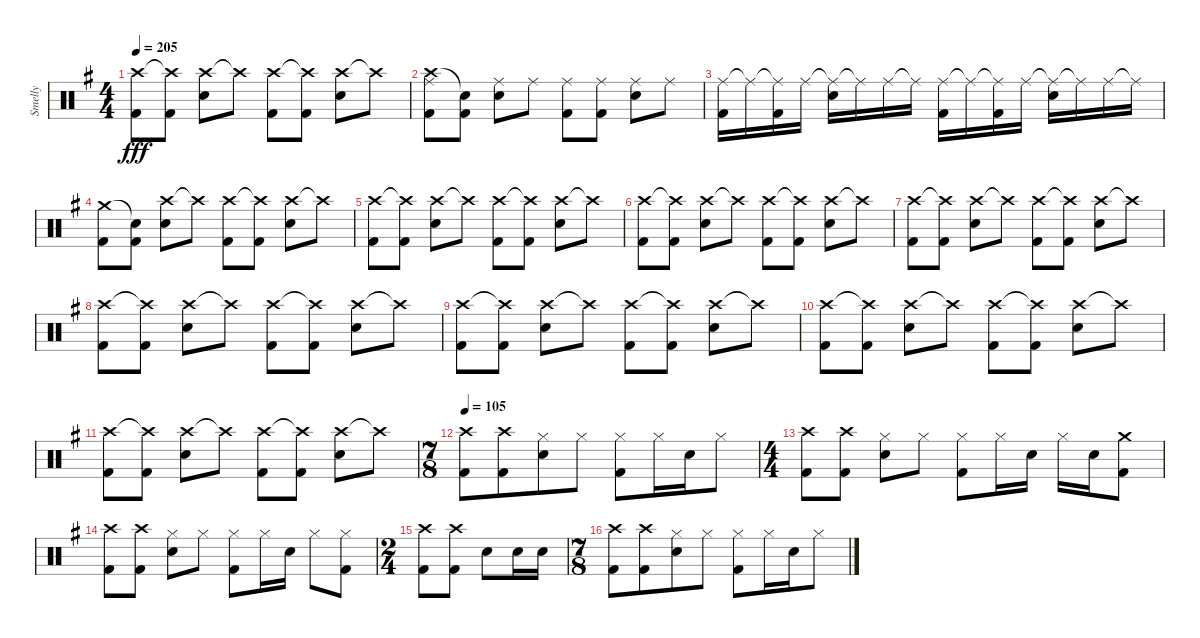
\track ("Smelly" "Smelly") {instrument percussion}
\staff {score}
\articulation defaults
\ts (4 4)
\tempo 205
\clef neutral
\ks eminor
("Crash high (hit)" "Kick (hit) 2").8{dy fff} ("Crash high (hit)"{t} "Kick (hit) 2").8 ("Crash high (hit)" "Electric Snare (hit)").8 "Crash high (hit)"{t}.8 ("Crash high (hit)" "Kick (hit) 2").8 ("Crash high (hit)"{t} "Kick (hit) 2").8 ("Crash high (hit)" "Electric Snare (hit)").8 "Crash high (hit)"{t}.8 |
("Crash high (hit)" "Ride (middle)" "Kick (hit) 2").8 ("Snare (hit)"{t} "Kick (hit) 2").8 ("Ride (middle)" "Electric Snare (hit)").8 "Ride (middle)".8 ("Ride (middle)" "Kick (hit) 2").8 ("Ride (middle)" "Kick (hit) 2").8 ("Ride (middle)" "Electric Snare (hit)").8 "Ride (middle)".8 |
("Ride (middle)" "Kick (hit) 2").16 "Ride (middle)"{t}.16 ("Ride (middle)"{t} "Kick (hit) 2").16 "Ride (middle)".16 ("Ride (middle)"{t} "Electric Snare (hit)").16 "Ride (middle)"{t}.16 "Ride (middle)".16 "Ride (middle)"{t}.16 ("Ride (middle)" "Kick (hit) 2").16 "Ride (middle)"{t}.16 ("Ride (middle)"{t} "Kick (hit) 2").16 "Ride (middle)".16 ("Ride (middle)"{t} "Electric Snare (hit)").16 "Ride (middle)"{t}.16 "Ride (middle)".16 "Ride (middle)"{t}.16 |
("Crash medium (hit)" "Kick (hit) 2").8 ("Snare (hit)"{t} "Kick (hit) 2").8 ("Crash high (hit)" "Electric Snare (hit)").8 "Crash high (hit)"{t}.8 ("Crash high (hit)" "Kick (hit) 2").8 ("Crash high (hit)"{t} "Kick (hit) 2").8 ("Crash high (hit)" "Electric Snare (hit)").8 "Crash high (hit)"{t}.8 |
("Crash high (hit)" "Kick (hit) 2").8 ("Crash high (hit)"{t} "Kick (hit) 2").8 ("Crash high (hit)" "Electric Snare (hit)").8 "Crash high (hit)"{t}.8 ("Crash high (hit)" "Kick (hit) 2").8 ("Crash high (hit)"{t} "Kick (hit) 2").8 ("Crash high (hit)" "Electric Snare (hit)").8 "Crash high (hit)"{t}.8 |
("Crash high (hit)" "Kick (hit) 2").8 ("Crash high (hit)"{t} "Kick (hit) 2").8 ("Crash high (hit)" "Electric Snare (hit)").8 "Crash high (hit)"{t}.8 ("Crash high (hit)" "Kick (hit) 2").8 ("Crash high (hit)"{t} "Kick (hit) 2").8 ("Crash high (hit)" "Electric Snare (hit)").8 "Crash high (hit)"{t}.8 |
("Crash high (hit)" "Kick (hit) 2").8 ("Crash high (hit)"{t} "Kick (hit) 2").8 ("Crash high (hit)" "Electric Snare (hit)").8 "Crash high (hit)"{t}.8 ("Crash high (hit)" "Kick (hit) 2").8 ("Crash high (hit)"{t} "Kick (hit) 2").8 ("Crash high (hit)" "Electric Snare (hit)").8 "Crash high (hit)"{t}.8 |
("Crash high (hit)" "Kick (hit) 2").8 ("Crash high (hit)"{t} "Kick (hit) 2").8 ("Crash high (hit)" "Electric Snare (hit)").8 "Crash high (hit)"{t}.8 ("Crash high (hit)" "Kick (hit) 2").8 ("Crash high (hit)"{t} "Kick (hit) 2").8 ("Crash high (hit)" "Electric Snare (hit)").8 "Crash high (hit)"{t}.8 |
("Crash high (hit)" "Kick (hit) 2").8 ("Crash high (hit)"{t} "Kick (hit) 2").8 ("Crash high (hit)" "Electric Snare (hit)").8 "Crash high (hit)"{t}.8 ("Crash high (hit)" "Kick (hit) 2").8 ("Crash high (hit)"{t} "Kick (hit) 2").8 ("Crash high (hit)" "Electric Snare (hit)").8 "Crash high (hit)"{t}.8 |
("Crash high (hit)" "Kick (hit) 2").8 ("Crash high (hit)"{t} "Kick (hit) 2").8 ("Crash high (hit)" "Electric Snare (hit)").8 "Crash high (hit)"{t}.8 ("Crash high (hit)" "Kick (hit) 2").8 ("Crash high (hit)"{t} "Kick (hit) 2").8 ("Crash high (hit)" "Electric Snare (hit)").8 "Crash high (hit)"{t}.8 |
("Crash high (hit)" "Kick (hit) 2").8 ("Crash high (hit)"{t} "Kick (hit) 2").8 ("Crash high (hit)" "Electric Snare (hit)").8 "Crash high (hit)"{t}.8 ("Crash high (hit)" "Kick (hit) 2").8 ("Crash high (hit)"{t} "Kick (hit) 2").8 ("Crash high (hit)" "Electric Snare (hit)").8 "Crash high (hit)"{t}.8 |
\ts (7 8)
\tempo 105
("Crash high (hit)" "Kick (hit) 2").8 ("Crash high (hit)" "Kick (hit) 2").8 ("Hi-Hat (closed)" "Electric Snare (hit)").8 "Hi-Hat (closed)".8 ("Hi-Hat (closed)" "Kick (hit) 2").8 "Hi-Hat (closed)".16 "Electric Snare (hit)".16 "Hi-Hat (closed)".8 |
\ts (4 4)
("Crash high (hit)" "Kick (hit) 2").8 ("Crash high (hit)" "Kick (hit) 2").8 ("Hi-Hat (closed)" "Electric Snare (hit)").8 "Hi-Hat (closed)".8 ("Hi-Hat (closed)" "Kick (hit) 2").8 "Hi-Hat (closed)".16 "Electric Snare (hit)".16 "Hi-Hat (closed)".16 "Electric Snare (hit)".16 ("Crash medium (hit)" "Kick (hit) 2").8 |
("Crash high (hit)" "Kick (hit) 2").8 ("Crash high (hit)" "Kick (hit) 2").8 ("Hi-Hat (closed)" "Electric Snare (hit)").8 "Hi-Hat (closed)".8 ("Hi-Hat (closed)" "Kick (hit) 2").8 "Hi-Hat (closed)".16 "Electric Snare (hit)".16 "Hi-Hat (closed)".8 ("Hi-Hat (closed)" "Kick (hit) 2").8 |
\ts (2 4)
("Crash high (hit)" "Kick (hit) 2").8 ("Crash high (hit)" "Kick (hit) 2").8 "Electric Snare (hit)".8 "Electric Snare (hit)".16 "Electric Snare (hit)".16 |
\ts (7 8)
("Crash high (hit)" "Kick (hit) 2").8 ("Crash high (hit)" "Kick (hit) 2").8 ("Hi-Hat (closed)" "Electric Snare (hit)").8 "Hi-Hat (closed)".8 ("Hi-Hat (closed)" "Kick (hit) 2").8 "Hi-Hat (closed)".16 "Electric Snare (hit)".16 "Hi-Hat (closed)".8
